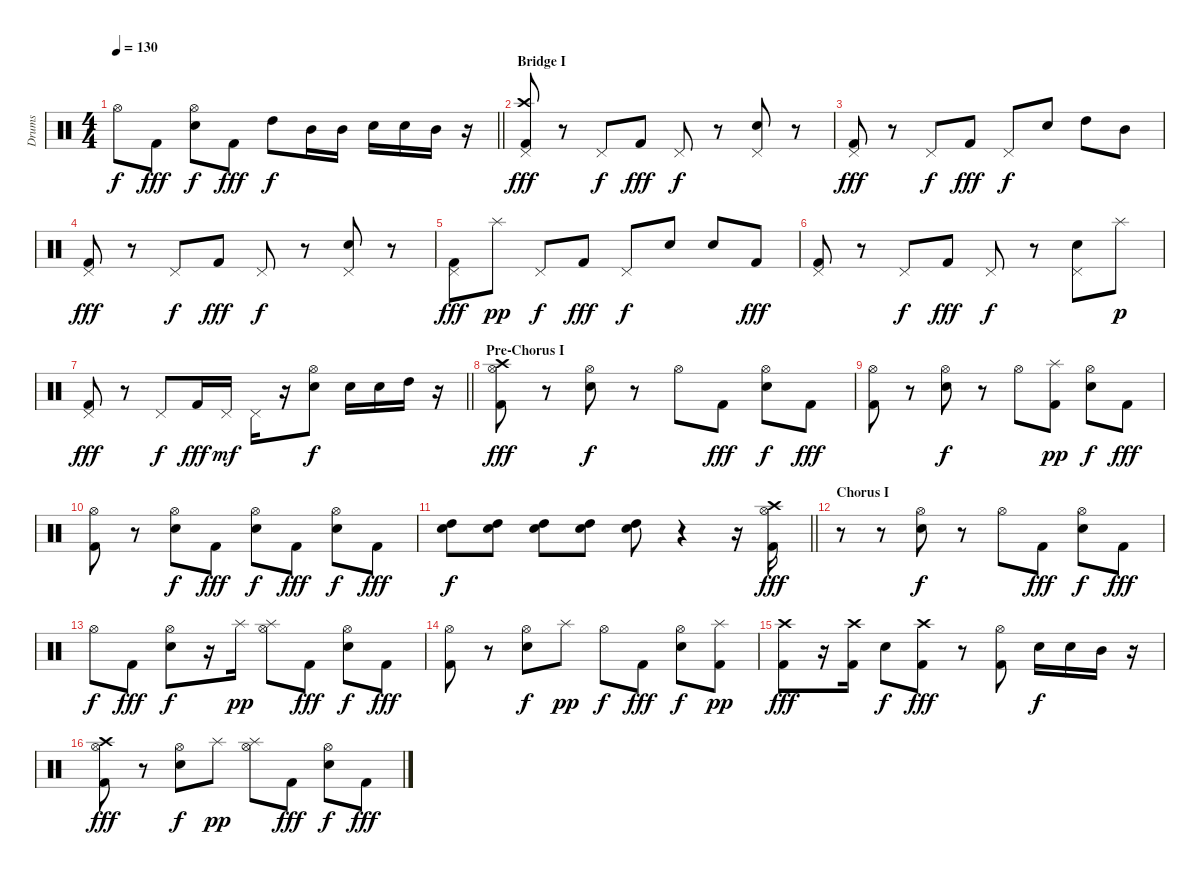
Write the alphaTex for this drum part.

\track ("Drums" "Drums") {instrument percussion}
\staff {score}
\articulation defaults
\ts (4 4)
\tempo 130
\clef neutral
\barLineRight lightlight
\ks c "Hi-Hat (open)".8{dy f} "Kick (hit) 2".8{dy fff}
("Snare (hit) 2" "Hi-Hat (open)").8{dy f} "Kick (hit) 2".8{dy fff} "High Tom (hit)".8{dy f} "Mid Tom (hit)".16 "Mid Tom (hit)".16 "Snare (hit) 2".16 "Snare (hit) 2".16 "Mid Tom (hit)".16 r.16 |
\section ("" "Bridge I")
("Kick (hit) 2" "Crash high (hit)" "Pedal Hi-Hat (hit)").8{dy fff} r.8 "Pedal Hi-Hat (hit)".8{dy f} "Kick (hit) 2".8{dy fff} "Pedal Hi-Hat (hit)".8{dy f} r.8 ("Snare (hit) 2" "Pedal Hi-Hat (hit)").8 r.8 |
("Kick (hit) 2" "Pedal Hi-Hat (hit)").8{dy fff} r.8 "Pedal Hi-Hat (hit)".8{dy f} "Kick (hit) 2".8{dy fff} "Pedal Hi-Hat (hit)".8{dy f} "Snare (hit) 2".8 "High Tom (hit)".8 "Mid Tom (hit)".8 |
("Kick (hit) 2" "Pedal Hi-Hat (hit)").8{dy fff} r.8 "Pedal Hi-Hat (hit)".8{dy f} "Kick (hit) 2".8{dy fff} "Pedal Hi-Hat (hit)".8{dy f} r.8 ("Snare (hit) 2" "Pedal Hi-Hat (hit)").8 r.8 |
("Kick (hit) 2" "Pedal Hi-Hat (hit)").8{dy fff} "Splash (hit)".8{dy pp} "Pedal Hi-Hat (hit)".8{dy f} "Kick (hit) 2".8{dy fff} "Pedal Hi-Hat (hit)".8{dy f} "Snare (hit) 2".8 "Snare (hit) 2".8 "Kick (hit) 2".8{dy fff} |
("Kick (hit) 2" "Pedal Hi-Hat (hit)").8 r.8 "Pedal Hi-Hat (hit)".8{dy f} "Kick (hit) 2".8{dy fff} "Pedal Hi-Hat (hit)".8{dy f} r.8 ("Snare (hit) 2" "Pedal Hi-Hat (hit)").8 "Splash (hit)".8{dy p} |
\barLineRight lightlight
("Kick (hit) 2" "Pedal Hi-Hat (hit)").8{dy fff} r.8 "Pedal Hi-Hat (hit)".8{dy f} "Kick (hit) 2".16{dy fff} "Pedal Hi-Hat (hit)".16{dy mf} "Pedal Hi-Hat (hit)".16 r.16 ("Snare (hit) 2" "Hi-Hat (open)").8{dy f} "Snare (hit) 2".16 "Snare (hit) 2".16 "High Tom (hit)".16 r.16 |
\section ("" "Pre-Chorus I")
("Kick (hit) 2" "Crash high (hit)" "Hi-Hat (open)").8{dy fff} r.8 ("Snare (hit) 2" "Hi-Hat (open)").8{dy f} r.8 "Hi-Hat (open)".8 "Kick (hit) 2".8{dy fff} ("Snare (hit) 2" "Hi-Hat (open)").8{dy f} "Kick (hit) 2".8{dy fff} |
("Kick (hit) 2" "Hi-Hat (open)").8 r.8 ("Snare (hit) 2" "Hi-Hat (open)").8{dy f} r.8 "Hi-Hat (open)".8 ("Kick (hit) 2" "Splash (hit)").8{dy pp} ("Snare (hit) 2" "Hi-Hat (open)").8{dy f} "Kick (hit) 2".8{dy fff} |
("Kick (hit) 2" "Hi-Hat (open)").8 r.8 ("Snare (hit) 2" "Hi-Hat (open)").8{dy f} "Kick (hit) 2".8{dy fff} ("Snare (hit) 2" "Hi-Hat (open)").8{dy f} "Kick (hit) 2".8{dy fff} ("Snare (hit) 2" "Hi-Hat (open)").8{dy f} "Kick (hit) 2".8{dy fff} |
\barLineRight lightlight
("Snare (hit) 2" "High Tom (hit)").8{dy f} ("Snare (hit) 2" "High Tom (hit)").8 ("Snare (hit) 2" "High Tom (hit)").8 ("Snare (hit) 2" "High Tom (hit)").8 ("Snare (hit) 2" "High Tom (hit)").8 r.4 r.16 ("Kick (hit) 2" "Crash high (hit)" "Hi-Hat (open)").16{dy fff} |
\section ("" "Chorus I")
r.8 r.8 ("Snare (hit) 2" "Hi-Hat (open)").8{dy f} r.8 "Hi-Hat (open)".8 "Kick (hit) 2".8{dy fff} ("Snare (hit) 2" "Hi-Hat (open)").8{dy f} "Kick (hit) 2".8{dy fff} |
"Hi-Hat (open)".8{dy f} "Kick (hit) 2".8{dy fff} ("Snare (hit) 2" "Hi-Hat (open)").8{dy f} r.16 "Splash (hit)".16{dy pp} ("Splash (hit)" "Hi-Hat (open)").8 "Kick (hit) 2".8{dy fff} ("Snare (hit) 2" "Hi-Hat (open)").8{dy f} "Kick (hit) 2".8{dy fff} |
("Kick (hit) 2" "Hi-Hat (open)").8 r.8 ("Snare (hit) 2" "Hi-Hat (open)").8{dy f} "Splash (hit)".8{dy pp} "Hi-Hat (open)".8{dy f} "Kick (hit) 2".8{dy fff} ("Snare (hit) 2" "Hi-Hat (open)").8{dy f} ("Kick (hit) 2" "Splash (hit)").8{dy pp} |
("Kick (hit) 2" "Crash high (hit)").8{dy fff} r.16 ("Kick (hit) 2" "Crash high (hit)").16 "Snare (hit) 2".8{dy f} ("Kick (hit) 2" "Crash high (hit)").8{dy fff} r.8 ("Kick (hit) 2" "Hi-Hat (open)").8 "Snare (hit) 2".16{dy f} "Snare (hit) 2".16 "Mid Tom (hit)".16 r.16 |
("Kick (hit) 2" "Crash high (hit)" "Hi-Hat (open)").8{dy fff} r.8 ("Snare (hit) 2" "Hi-Hat (open)").8{dy f} "Splash (hit)".8{dy pp} ("Splash (hit)" "Hi-Hat (open)").8 "Kick (hit) 2".8{dy fff} ("Snare (hit) 2" "Hi-Hat (open)").8{dy f} "Kick (hit) 2".8{dy fff}
